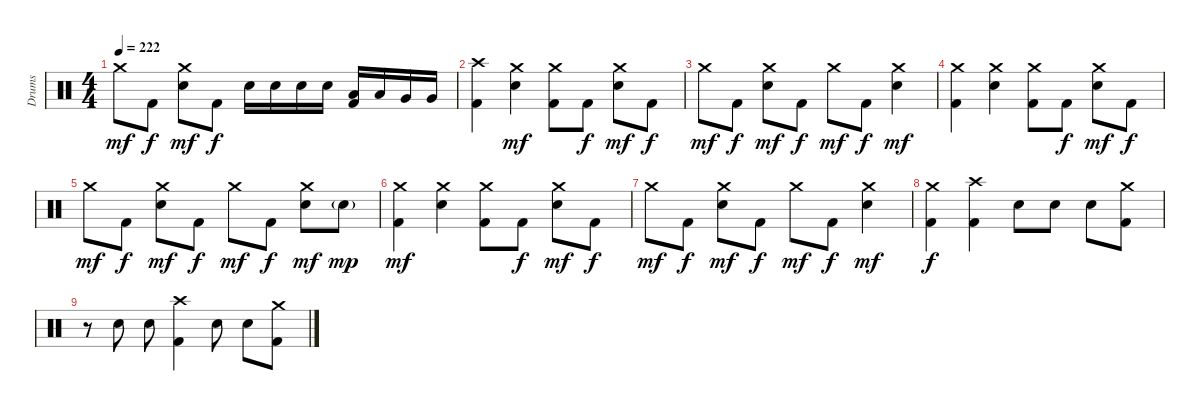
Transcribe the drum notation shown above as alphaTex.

\track ("Drums" "Drums") {instrument percussion}
\staff {score}
\articulation defaults
\ts (4 4)
\tempo 222
\clef neutral
\ks c "Crash medium (hit)".8{dy mf} "Kick (hit) 2".8{dy f}
("Crash medium (hit)" "Electric Snare (hit)").8{dy mf} "Kick (hit) 2".8{dy f} "Electric Snare (hit)".16 "Electric Snare (hit)".16 "Electric Snare (hit)".16 "Electric Snare (hit)".16 ("Low Tom (hit)" "Kick (hit) 2").16 "Low Tom (hit)".16 "Very Low Tom (hit)".16 "Very Low Tom (hit)".16 |
("Crash high (hit)" "Kick (hit) 2").4 ("Crash medium (hit)" "Electric Snare (hit)").4{dy mf} ("Crash medium (hit)" "Kick (hit) 2").8 "Kick (hit) 2".8{dy f} ("Crash medium (hit)" "Electric Snare (hit)").8{dy mf} "Kick (hit) 2".8{dy f} |
"Crash medium (hit)".8{dy mf} "Kick (hit) 2".8{dy f} ("Crash medium (hit)" "Electric Snare (hit)").8{dy mf} "Kick (hit) 2".8{dy f} "Crash medium (hit)".8{dy mf} "Kick (hit) 2".8{dy f} ("Crash medium (hit)" "Electric Snare (hit)").4{dy mf} |
("Crash medium (hit)" "Kick (hit) 2").4 ("Crash medium (hit)" "Electric Snare (hit)").4 ("Crash medium (hit)" "Kick (hit) 2").8 "Kick (hit) 2".8{dy f} ("Crash medium (hit)" "Electric Snare (hit)").8{dy mf} "Kick (hit) 2".8{dy f} |
"Crash medium (hit)".8{dy mf} "Kick (hit) 2".8{dy f} ("Crash medium (hit)" "Electric Snare (hit)").8{dy mf} "Kick (hit) 2".8{dy f} "Crash medium (hit)".8{dy mf} "Kick (hit) 2".8{dy f} ("Crash medium (hit)" "Electric Snare (hit)").8{dy mf} "Electric Snare (hit)"{g}.8{dy mp} |
("Crash medium (hit)" "Kick (hit) 2").4{dy mf} ("Crash medium (hit)" "Electric Snare (hit)").4 ("Crash medium (hit)" "Kick (hit) 2").8 "Kick (hit) 2".8{dy f} ("Crash medium (hit)" "Electric Snare (hit)").8{dy mf} "Kick (hit) 2".8{dy f} |
"Crash medium (hit)".8{dy mf} "Kick (hit) 2".8{dy f} ("Crash medium (hit)" "Electric Snare (hit)").8{dy mf} "Kick (hit) 2".8{dy f} "Crash medium (hit)".8{dy mf} "Kick (hit) 2".8{dy f} ("Crash medium (hit)" "Electric Snare (hit)").4{dy mf} |
("Crash medium (hit)" "Kick (hit) 2").4{dy f} ("Crash high (hit)" "Kick (hit) 2").4 "Electric Snare (hit)".8 "Electric Snare (hit)".8 "Electric Snare (hit)".8 ("Crash medium (hit)" "Kick (hit) 2").8 |
r.8 "Electric Snare (hit)".8 "Electric Snare (hit)".8 ("Crash high (hit)" "Kick (hit) 2").4 "Electric Snare (hit)".8 "Electric Snare (hit)".8 ("Crash medium (hit)" "Kick (hit) 2").8
